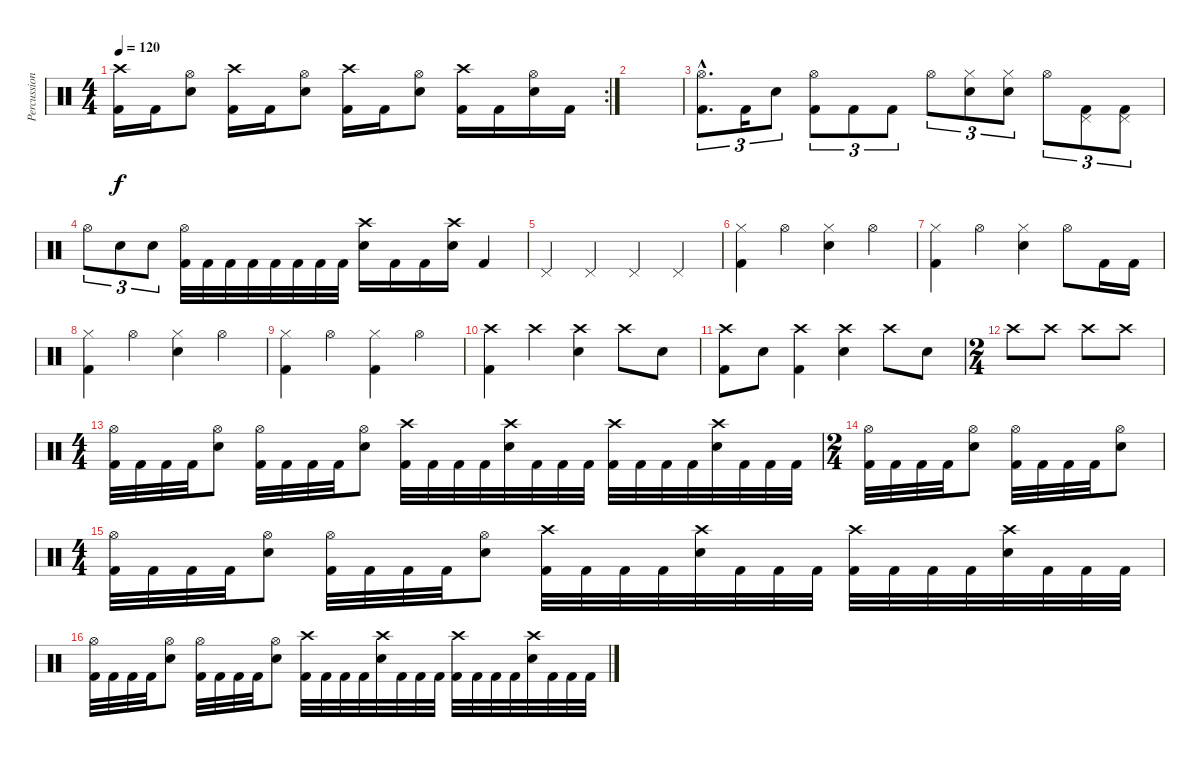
\track ("Percussions" "Percussion") {instrument percussion}
\staff {score}
\articulation defaults
\rc 2
\ts (4 4)
\tempo 120
\clef neutral
\ks c
("Crash high (hit)" "Kick (hit) 2").16{dy f} "Kick (hit) 2".16 ("Hi-Hat (open)" "Electric Snare (hit)").8 ("Crash high (hit)" "Kick (hit) 2").16 "Kick (hit) 2".16 ("Hi-Hat (open)" "Electric Snare (hit)").8 ("Crash high (hit)" "Kick (hit) 2").16 "Kick (hit) 2".16 ("Hi-Hat (open)" "Electric Snare (hit)").8 ("Crash high (hit)" "Kick (hit) 2").16 "Kick (hit) 2".16 ("Hi-Hat (open)" "Electric Snare (hit)").16 "Kick (hit) 2".16 |
|
("Hi-Hat (open)"{hac} "Kick (hit) 2"{hac}).8{d tu (3 2)} "Kick (hit) 2".16{tu (3 2)} "Electric Snare (hit)".8{tu (3 2)} ("Hi-Hat (open)" "Kick (hit) 2").8{tu (3 2)} "Kick (hit) 2".8{tu (3 2)} "Kick (hit) 2".8{tu (3 2)} "Hi-Hat (open)".8{tu (3 2)} ("Hi-Hat (closed)" "Electric Snare (hit)").8{tu (3 2)} ("Hi-Hat (closed)" "Electric Snare (hit)").8{tu (3 2)} "Hi-Hat (open)".8{tu (3 2)} ("Pedal Hi-Hat (hit)" "Kick (hit) 2").8{tu (3 2)} ("Pedal Hi-Hat (hit)" "Kick (hit) 2").8{tu (3 2)} |
"Hi-Hat (open)".8{tu (3 2)} "Electric Snare (hit)".8{tu (3 2)} "Electric Snare (hit)".8{tu (3 2)} ("Hi-Hat (open)" "Kick (hit) 2").32 "Kick (hit) 2".32 "Kick (hit) 2".32 "Kick (hit) 2".32 "Kick (hit) 2".32 "Kick (hit) 2".32 "Kick (hit) 2".32 "Kick (hit) 2".32 ("Crash high (hit)" "Electric Snare (hit)").16 "Kick (hit) 2".16 "Kick (hit) 2".16 ("Crash high (hit)" "Electric Snare (hit)").16 "Kick (hit) 2".4 |
"Pedal Hi-Hat (hit)".4 "Pedal Hi-Hat (hit)".4 "Pedal Hi-Hat (hit)".4 "Pedal Hi-Hat (hit)".4 |
("Hi-Hat (closed)" "Kick (hit) 2").4 "Hi-Hat (open)".4 ("Hi-Hat (closed)" "Electric Snare (hit)").4 "Hi-Hat (open)".4 |
("Hi-Hat (closed)" "Kick (hit) 2").4 "Hi-Hat (open)".4 ("Hi-Hat (closed)" "Electric Snare (hit)").4 "Hi-Hat (open)".8 "Kick (hit) 2".16 "Kick (hit) 2".16 |
("Hi-Hat (closed)" "Kick (hit) 2").4 "Hi-Hat (open)".4 ("Hi-Hat (closed)" "Electric Snare (hit)").4 "Hi-Hat (open)".4 |
("Hi-Hat (closed)" "Kick (hit) 2").4 "Hi-Hat (open)".4 ("Hi-Hat (closed)" "Kick (hit) 2").4 "Hi-Hat (open)".4 |
("Crash high (hit)" "Kick (hit) 2").4 "Crash high (hit)".4 ("Crash high (hit)" "Electric Snare (hit)").4 "Crash high (hit)".8 "Electric Snare (hit)".8 |
("Crash high (hit)" "Kick (hit) 2").8 "Electric Snare (hit)".8 ("Crash high (hit)" "Kick (hit) 2").4 ("Crash high (hit)" "Electric Snare (hit)").4 "Crash high (hit)".8 "Electric Snare (hit)".8 |
\ts (2 4)
"Crash high (hit)".8 "Crash high (hit)".8 "Crash high (hit)".8 "Crash high (hit)".8 |
\ts (4 4)
("Hi-Hat (open)" "Kick (hit) 2").32 "Kick (hit) 2".32 "Kick (hit) 2".32 "Kick (hit) 2".32 ("Hi-Hat (open)" "Electric Snare (hit)").8 ("Hi-Hat (open)" "Kick (hit) 2").32 "Kick (hit) 2".32 "Kick (hit) 2".32 "Kick (hit) 2".32 ("Hi-Hat (open)" "Electric Snare (hit)").8 ("Crash high (hit)" "Kick (hit) 2").32 "Kick (hit) 2".32 "Kick (hit) 2".32 "Kick (hit) 2".32 ("Crash high (hit)" "Electric Snare (hit)").32 "Kick (hit) 2".32 "Kick (hit) 2".32 "Kick (hit) 2".32 ("Crash high (hit)" "Kick (hit) 2").32 "Kick (hit) 2".32 "Kick (hit) 2".32 "Kick (hit) 2".32 ("Crash high (hit)" "Electric Snare (hit)").32 "Kick (hit) 2".32 "Kick (hit) 2".32 "Kick (hit) 2".32 |
\ts (2 4)
("Hi-Hat (open)" "Kick (hit) 2").32 "Kick (hit) 2".32 "Kick (hit) 2".32 "Kick (hit) 2".32 ("Hi-Hat (open)" "Electric Snare (hit)").8 ("Hi-Hat (open)" "Kick (hit) 2").32 "Kick (hit) 2".32 "Kick (hit) 2".32 "Kick (hit) 2".32 ("Hi-Hat (open)" "Electric Snare (hit)").8 |
\ts (4 4)
("Hi-Hat (open)" "Kick (hit) 2").32 "Kick (hit) 2".32 "Kick (hit) 2".32 "Kick (hit) 2".32 ("Hi-Hat (open)" "Electric Snare (hit)").8 ("Hi-Hat (open)" "Kick (hit) 2").32 "Kick (hit) 2".32 "Kick (hit) 2".32 "Kick (hit) 2".32 ("Hi-Hat (open)" "Electric Snare (hit)").8 ("Crash high (hit)" "Kick (hit) 2").32 "Kick (hit) 2".32 "Kick (hit) 2".32 "Kick (hit) 2".32 ("Crash high (hit)" "Electric Snare (hit)").32 "Kick (hit) 2".32 "Kick (hit) 2".32 "Kick (hit) 2".32 ("Crash high (hit)" "Kick (hit) 2").32 "Kick (hit) 2".32 "Kick (hit) 2".32 "Kick (hit) 2".32 ("Crash high (hit)" "Electric Snare (hit)").32 "Kick (hit) 2".32 "Kick (hit) 2".32 "Kick (hit) 2".32 |
("Hi-Hat (open)" "Kick (hit) 2").32 "Kick (hit) 2".32 "Kick (hit) 2".32 "Kick (hit) 2".32 ("Hi-Hat (open)" "Electric Snare (hit)").8 ("Hi-Hat (open)" "Kick (hit) 2").32 "Kick (hit) 2".32 "Kick (hit) 2".32 "Kick (hit) 2".32 ("Hi-Hat (open)" "Electric Snare (hit)").8 ("Crash high (hit)" "Kick (hit) 2").32 "Kick (hit) 2".32 "Kick (hit) 2".32 "Kick (hit) 2".32 ("Crash high (hit)" "Electric Snare (hit)").32 "Kick (hit) 2".32 "Kick (hit) 2".32 "Kick (hit) 2".32 ("Crash high (hit)" "Kick (hit) 2").32 "Kick (hit) 2".32 "Kick (hit) 2".32 "Kick (hit) 2".32 ("Crash high (hit)" "Electric Snare (hit)").32 "Kick (hit) 2".32 "Kick (hit) 2".32 "Kick (hit) 2".32
